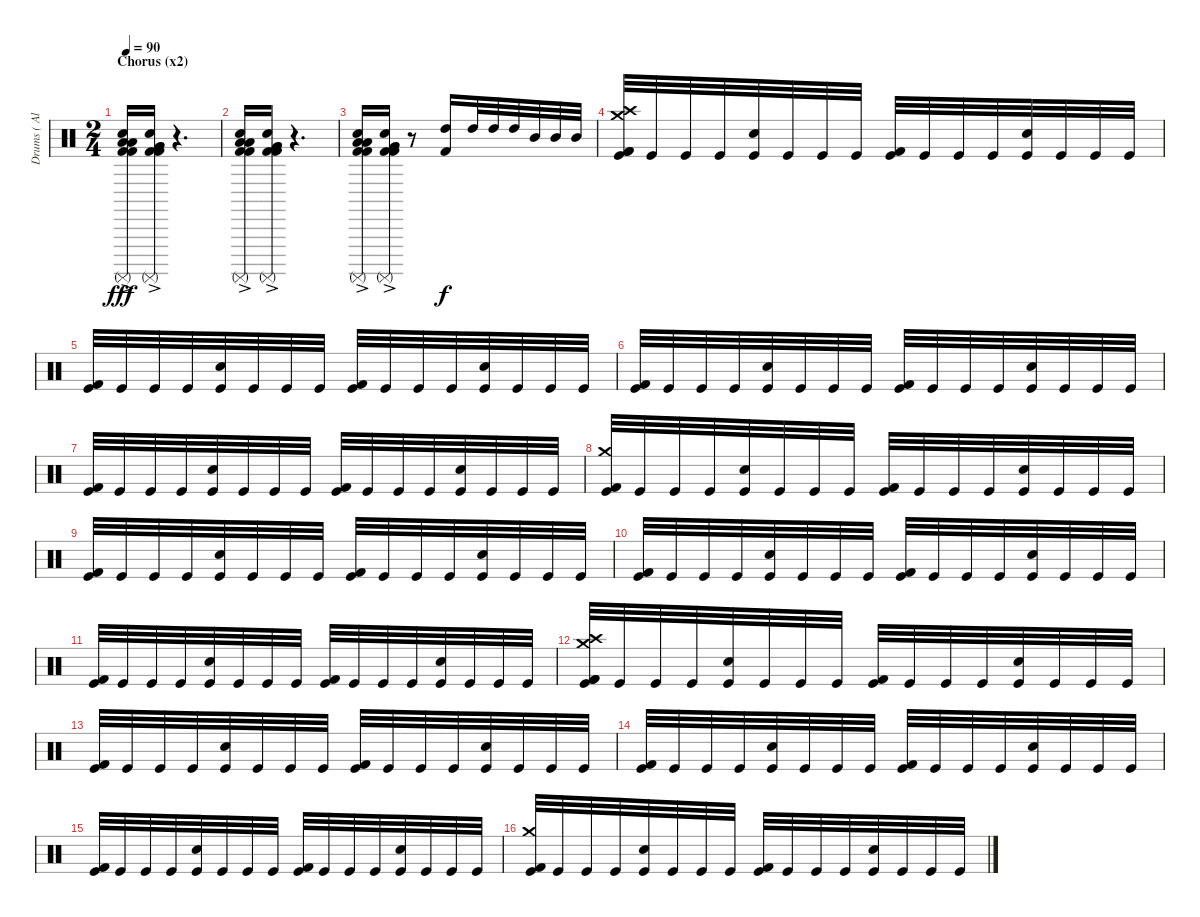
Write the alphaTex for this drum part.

\track ("Drums ( Alex Holzwarth)" "Drums ( Al") {instrument percussion}
\staff {score}
\articulation defaults
\ts (2 4)
\section ("" "Chorus (x2)")
\tempo 90
\clef neutral
\ks c
("Surdo (mute)"{ac} "Low Tom (hit)"{ac} "Low Tom (hit)"{ac} "Snare (hit) 2" "Kick (hit) 2"{ac} "Kick (hit) 2"{ac}).16{dy fff} ("Surdo (mute)"{ac} "Very Low Tom (hit)"{ac} "Very Low Tom (hit)"{ac} "Snare (hit) 2" "Kick (hit) 2"{ac} "Kick (hit) 2"{ac}).16 r.4{d} |
("Surdo (mute)"{ac} "Low Tom (hit)"{ac} "Low Tom (hit)"{ac} "Snare (hit) 2" "Kick (hit) 2"{ac} "Kick (hit) 2"{ac}).16 ("Surdo (mute)"{ac} "Very Low Tom (hit)"{ac} "Very Low Tom (hit)"{ac} "Snare (hit) 2" "Kick (hit) 2"{ac} "Kick (hit) 2"{ac}).16 r.4{d} |
("Surdo (mute)"{ac} "Low Tom (hit)"{ac} "Low Tom (hit)"{ac} "Snare (hit) 2" "Kick (hit) 2"{ac} "Kick (hit) 2"{ac}).16 ("Surdo (mute)"{ac} "Very Low Tom (hit)"{ac} "Very Low Tom (hit)"{ac} "Snare (hit) 2" "Kick (hit) 2"{ac} "Kick (hit) 2"{ac}).16 r.8 ("High Tom (hit)" "Kick (hit) 2").16{dy f} "High Tom (hit)".32 "High Tom (hit)".32 "High Tom (hit)".32 "Mid Tom (hit)".32 "Mid Tom (hit)".32 "Mid Tom (hit)".32 |
("Crash high (hit)" "Crash medium (hit)" "Kick (hit) 2" "Kick (hit) 2" "Kick (hit)").32 "Kick (hit)".32 "Kick (hit)".32 "Kick (hit)".32 ("Snare (hit) 2" "Kick (hit)").32 "Kick (hit)".32 "Kick (hit)".32 "Kick (hit)".32 ("Kick (hit) 2" "Kick (hit)").32 "Kick (hit)".32 "Kick (hit)".32 "Kick (hit)".32 ("Snare (hit) 2" "Kick (hit)").32 "Kick (hit)".32 "Kick (hit)".32 "Kick (hit)".32 |
("Kick (hit) 2" "Kick (hit)").32 "Kick (hit)".32 "Kick (hit)".32 "Kick (hit)".32 ("Snare (hit) 2" "Kick (hit)").32 "Kick (hit)".32 "Kick (hit)".32 "Kick (hit)".32 ("Kick (hit) 2" "Kick (hit)").32 "Kick (hit)".32 "Kick (hit)".32 "Kick (hit)".32 ("Snare (hit) 2" "Kick (hit)").32 "Kick (hit)".32 "Kick (hit)".32 "Kick (hit)".32 |
("Kick (hit) 2" "Kick (hit)").32 "Kick (hit)".32 "Kick (hit)".32 "Kick (hit)".32 ("Snare (hit) 2" "Kick (hit)").32 "Kick (hit)".32 "Kick (hit)".32 "Kick (hit)".32 ("Kick (hit) 2" "Kick (hit)").32 "Kick (hit)".32 "Kick (hit)".32 "Kick (hit)".32 ("Snare (hit) 2" "Kick (hit)").32 "Kick (hit)".32 "Kick (hit)".32 "Kick (hit)".32 |
("Kick (hit) 2" "Kick (hit)").32 "Kick (hit)".32 "Kick (hit)".32 "Kick (hit)".32 ("Snare (hit) 2" "Kick (hit)").32 "Kick (hit)".32 "Kick (hit)".32 "Kick (hit)".32 ("Kick (hit) 2" "Kick (hit)").32 "Kick (hit)".32 "Kick (hit)".32 "Kick (hit)".32 ("Snare (hit) 2" "Kick (hit)").32 "Kick (hit)".32 "Kick (hit)".32 "Kick (hit)".32 |
("Crash medium (hit)" "Kick (hit) 2" "Kick (hit)").32 "Kick (hit)".32 "Kick (hit)".32 "Kick (hit)".32 ("Snare (hit) 2" "Kick (hit)").32 "Kick (hit)".32 "Kick (hit)".32 "Kick (hit)".32 ("Kick (hit) 2" "Kick (hit)").32 "Kick (hit)".32 "Kick (hit)".32 "Kick (hit)".32 ("Snare (hit) 2" "Kick (hit)").32 "Kick (hit)".32 "Kick (hit)".32 "Kick (hit)".32 |
("Kick (hit) 2" "Kick (hit)").32 "Kick (hit)".32 "Kick (hit)".32 "Kick (hit)".32 ("Snare (hit) 2" "Kick (hit)").32 "Kick (hit)".32 "Kick (hit)".32 "Kick (hit)".32 ("Kick (hit) 2" "Kick (hit)").32 "Kick (hit)".32 "Kick (hit)".32 "Kick (hit)".32 ("Snare (hit) 2" "Kick (hit)").32 "Kick (hit)".32 "Kick (hit)".32 "Kick (hit)".32 |
("Kick (hit) 2" "Kick (hit)").32 "Kick (hit)".32 "Kick (hit)".32 "Kick (hit)".32 ("Snare (hit) 2" "Kick (hit)").32 "Kick (hit)".32 "Kick (hit)".32 "Kick (hit)".32 ("Kick (hit) 2" "Kick (hit)").32 "Kick (hit)".32 "Kick (hit)".32 "Kick (hit)".32 ("Snare (hit) 2" "Kick (hit)").32 "Kick (hit)".32 "Kick (hit)".32 "Kick (hit)".32 |
("Kick (hit) 2" "Kick (hit)").32 "Kick (hit)".32 "Kick (hit)".32 "Kick (hit)".32 ("Snare (hit) 2" "Kick (hit)").32 "Kick (hit)".32 "Kick (hit)".32 "Kick (hit)".32 ("Kick (hit) 2" "Kick (hit)").32 "Kick (hit)".32 "Kick (hit)".32 "Kick (hit)".32 ("Snare (hit) 2" "Kick (hit)").32 "Kick (hit)".32 "Kick (hit)".32 "Kick (hit)".32 |
("Crash high (hit)" "Crash medium (hit)" "Kick (hit) 2" "Kick (hit) 2" "Kick (hit)").32 "Kick (hit)".32 "Kick (hit)".32 "Kick (hit)".32 ("Snare (hit) 2" "Kick (hit)").32 "Kick (hit)".32 "Kick (hit)".32 "Kick (hit)".32 ("Kick (hit) 2" "Kick (hit)").32 "Kick (hit)".32 "Kick (hit)".32 "Kick (hit)".32 ("Snare (hit) 2" "Kick (hit)").32 "Kick (hit)".32 "Kick (hit)".32 "Kick (hit)".32 |
("Kick (hit) 2" "Kick (hit)").32 "Kick (hit)".32 "Kick (hit)".32 "Kick (hit)".32 ("Snare (hit) 2" "Kick (hit)").32 "Kick (hit)".32 "Kick (hit)".32 "Kick (hit)".32 ("Kick (hit) 2" "Kick (hit)").32 "Kick (hit)".32 "Kick (hit)".32 "Kick (hit)".32 ("Snare (hit) 2" "Kick (hit)").32 "Kick (hit)".32 "Kick (hit)".32 "Kick (hit)".32 |
("Kick (hit) 2" "Kick (hit)").32 "Kick (hit)".32 "Kick (hit)".32 "Kick (hit)".32 ("Snare (hit) 2" "Kick (hit)").32 "Kick (hit)".32 "Kick (hit)".32 "Kick (hit)".32 ("Kick (hit) 2" "Kick (hit)").32 "Kick (hit)".32 "Kick (hit)".32 "Kick (hit)".32 ("Snare (hit) 2" "Kick (hit)").32 "Kick (hit)".32 "Kick (hit)".32 "Kick (hit)".32 |
("Kick (hit) 2" "Kick (hit)").32 "Kick (hit)".32 "Kick (hit)".32 "Kick (hit)".32 ("Snare (hit) 2" "Kick (hit)").32 "Kick (hit)".32 "Kick (hit)".32 "Kick (hit)".32 ("Kick (hit) 2" "Kick (hit)").32 "Kick (hit)".32 "Kick (hit)".32 "Kick (hit)".32 ("Snare (hit) 2" "Kick (hit)").32 "Kick (hit)".32 "Kick (hit)".32 "Kick (hit)".32 |
("Crash medium (hit)" "Kick (hit) 2" "Kick (hit)").32 "Kick (hit)".32 "Kick (hit)".32 "Kick (hit)".32 ("Snare (hit) 2" "Kick (hit)").32 "Kick (hit)".32 "Kick (hit)".32 "Kick (hit)".32 ("Kick (hit) 2" "Kick (hit)").32 "Kick (hit)".32 "Kick (hit)".32 "Kick (hit)".32 ("Snare (hit) 2" "Kick (hit)").32 "Kick (hit)".32 "Kick (hit)".32 "Kick (hit)".32
